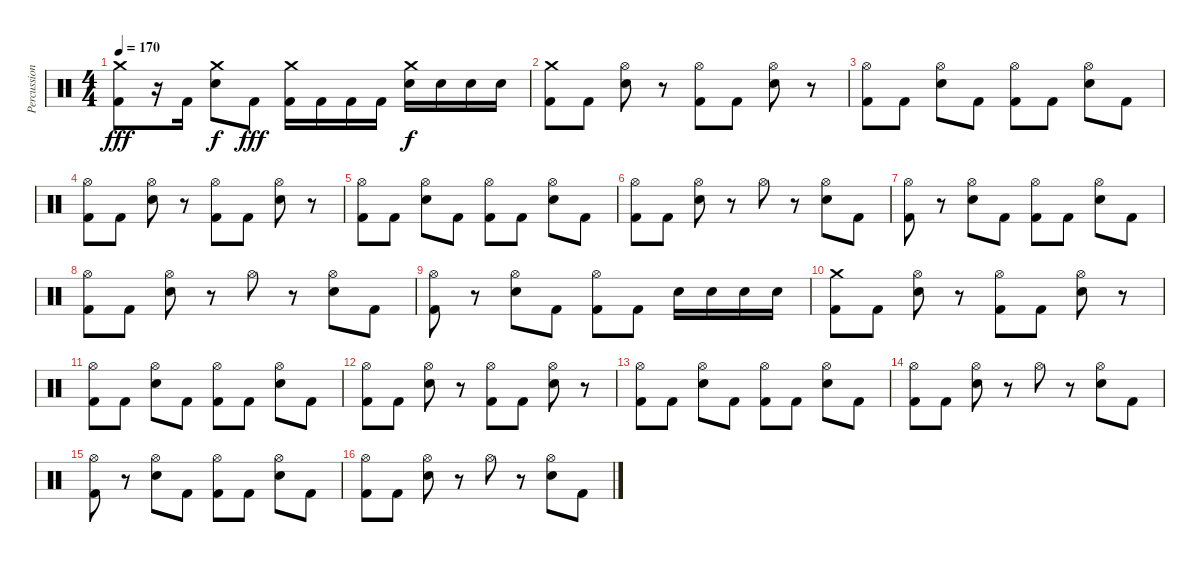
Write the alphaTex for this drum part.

\track ("Percussion" "Percussion") {instrument percussion}
\staff {score}
\articulation defaults
\ts (4 4)
\tempo 170
\clef neutral
\ks c
("Crash medium (hit)" "Kick (hit) 2").8{dy fff} r.16 "Kick (hit) 2".16 ("Crash medium (hit)" "Electric Snare (hit)").8{dy f} "Kick (hit) 2".8{dy fff} ("Crash medium (hit)" "Kick (hit) 2").16 "Kick (hit) 2".16 "Kick (hit) 2".16 "Kick (hit) 2".16 ("Crash medium (hit)" "Electric Snare (hit)").16{dy f} "Electric Snare (hit)".16 "Electric Snare (hit)".16 "Electric Snare (hit)".16 |
("Crash medium (hit)" "Kick (hit) 2").8 "Kick (hit) 2".8 ("Hi-Hat (open)" "Electric Snare (hit)").8 r.8 ("Hi-Hat (open)" "Kick (hit) 2").8 "Kick (hit) 2".8 ("Hi-Hat (open)" "Electric Snare (hit)").8 r.8 |
("Hi-Hat (open)" "Kick (hit) 2").8 "Kick (hit) 2".8 ("Hi-Hat (open)" "Electric Snare (hit)").8 "Kick (hit) 2".8 ("Hi-Hat (open)" "Kick (hit) 2").8 "Kick (hit) 2".8 ("Hi-Hat (open)" "Electric Snare (hit)").8 "Kick (hit) 2".8 |
("Hi-Hat (open)" "Kick (hit) 2").8 "Kick (hit) 2".8 ("Hi-Hat (open)" "Electric Snare (hit)").8 r.8 ("Hi-Hat (open)" "Kick (hit) 2").8 "Kick (hit) 2".8 ("Hi-Hat (open)" "Electric Snare (hit)").8 r.8 |
("Hi-Hat (open)" "Kick (hit) 2").8 "Kick (hit) 2".8 ("Hi-Hat (open)" "Electric Snare (hit)").8 "Kick (hit) 2".8 ("Hi-Hat (open)" "Kick (hit) 2").8 "Kick (hit) 2".8 ("Hi-Hat (open)" "Electric Snare (hit)").8 "Kick (hit) 2".8 |
("Hi-Hat (open)" "Kick (hit) 2").8 "Kick (hit) 2".8 ("Hi-Hat (open)" "Electric Snare (hit)").8 r.8 "Hi-Hat (open)".8 r.8 ("Hi-Hat (open)" "Electric Snare (hit)").8 "Kick (hit) 2".8 |
("Hi-Hat (open)" "Kick (hit) 2").8 r.8 ("Hi-Hat (open)" "Electric Snare (hit)").8 "Kick (hit) 2".8 ("Hi-Hat (open)" "Kick (hit) 2").8 "Kick (hit) 2".8 ("Hi-Hat (open)" "Electric Snare (hit)").8 "Kick (hit) 2".8 |
("Hi-Hat (open)" "Kick (hit) 2").8 "Kick (hit) 2".8 ("Hi-Hat (open)" "Electric Snare (hit)").8 r.8 "Hi-Hat (open)".8 r.8 ("Hi-Hat (open)" "Electric Snare (hit)").8 "Kick (hit) 2".8 |
("Hi-Hat (open)" "Kick (hit) 2").8 r.8 ("Hi-Hat (open)" "Electric Snare (hit)").8 "Kick (hit) 2".8 ("Hi-Hat (open)" "Kick (hit) 2").8 "Kick (hit) 2".8 "Electric Snare (hit)".16 "Electric Snare (hit)".16 "Electric Snare (hit)".16 "Electric Snare (hit)".16 |
("Crash medium (hit)" "Kick (hit) 2").8 "Kick (hit) 2".8 ("Hi-Hat (open)" "Electric Snare (hit)").8 r.8 ("Hi-Hat (open)" "Kick (hit) 2").8 "Kick (hit) 2".8 ("Hi-Hat (open)" "Electric Snare (hit)").8 r.8 |
("Hi-Hat (open)" "Kick (hit) 2").8 "Kick (hit) 2".8 ("Hi-Hat (open)" "Electric Snare (hit)").8 "Kick (hit) 2".8 ("Hi-Hat (open)" "Kick (hit) 2").8 "Kick (hit) 2".8 ("Hi-Hat (open)" "Electric Snare (hit)").8 "Kick (hit) 2".8 |
("Hi-Hat (open)" "Kick (hit) 2").8 "Kick (hit) 2".8 ("Hi-Hat (open)" "Electric Snare (hit)").8 r.8 ("Hi-Hat (open)" "Kick (hit) 2").8 "Kick (hit) 2".8 ("Hi-Hat (open)" "Electric Snare (hit)").8 r.8 |
("Hi-Hat (open)" "Kick (hit) 2").8 "Kick (hit) 2".8 ("Hi-Hat (open)" "Electric Snare (hit)").8 "Kick (hit) 2".8 ("Hi-Hat (open)" "Kick (hit) 2").8 "Kick (hit) 2".8 ("Hi-Hat (open)" "Electric Snare (hit)").8 "Kick (hit) 2".8 |
("Hi-Hat (open)" "Kick (hit) 2").8 "Kick (hit) 2".8 ("Hi-Hat (open)" "Electric Snare (hit)").8 r.8 "Hi-Hat (open)".8 r.8 ("Hi-Hat (open)" "Electric Snare (hit)").8 "Kick (hit) 2".8 |
("Hi-Hat (open)" "Kick (hit) 2").8 r.8 ("Hi-Hat (open)" "Electric Snare (hit)").8 "Kick (hit) 2".8 ("Hi-Hat (open)" "Kick (hit) 2").8 "Kick (hit) 2".8 ("Hi-Hat (open)" "Electric Snare (hit)").8 "Kick (hit) 2".8 |
("Hi-Hat (open)" "Kick (hit) 2").8 "Kick (hit) 2".8 ("Hi-Hat (open)" "Electric Snare (hit)").8 r.8 "Hi-Hat (open)".8 r.8 ("Hi-Hat (open)" "Electric Snare (hit)").8 "Kick (hit) 2".8
